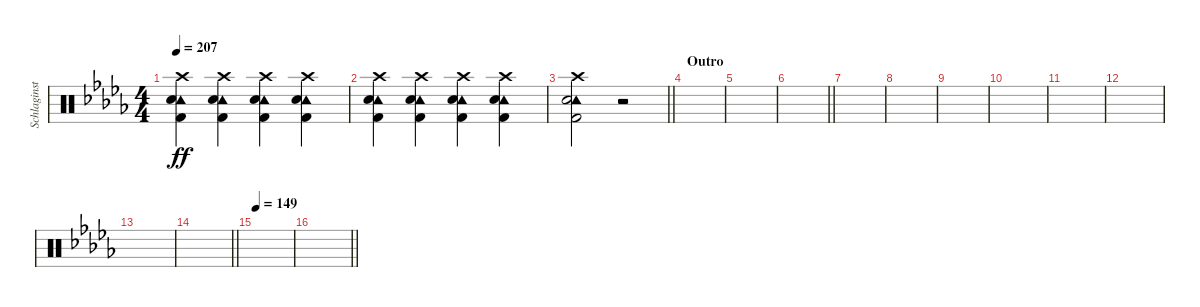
\track ("Schlaginstrumente - Auswahl" "Schlaginst") {instrument percussion}
\staff {score}
\articulation defaults
\ts (4 4)
\tempo 207
\clef neutral
\ks bbminor
("Crash high (hit)" "Tambourine (hit)" "Snare (hit) 2" "Kick (hit) 2").4{dy ff} ("Crash high (hit)" "Tambourine (hit)" "Snare (hit) 2" "Kick (hit) 2").4 ("Crash high (hit)" "Tambourine (hit)" "Snare (hit) 2" "Kick (hit) 2").4 ("Crash high (hit)" "Tambourine (hit)" "Snare (hit) 2" "Kick (hit) 2").4 |
("Crash high (hit)" "Tambourine (hit)" "Snare (hit) 2" "Kick (hit) 2").4 ("Crash high (hit)" "Tambourine (hit)" "Snare (hit) 2" "Kick (hit) 2").4 ("Crash high (hit)" "Tambourine (hit)" "Snare (hit) 2" "Kick (hit) 2").4 ("Crash high (hit)" "Tambourine (hit)" "Snare (hit) 2" "Kick (hit) 2").4 |
\barLineRight lightlight
("Crash high (hit)" "Tambourine (hit)" "Snare (hit) 2" "Kick (hit) 2").2 r.2 |
\section ("" "Outro")
|
|
\barLineRight lightlight
|
|
|
|
|
|
|
|
\barLineRight lightlight
|
\tempo 149
|
\barLineRight lightlight
